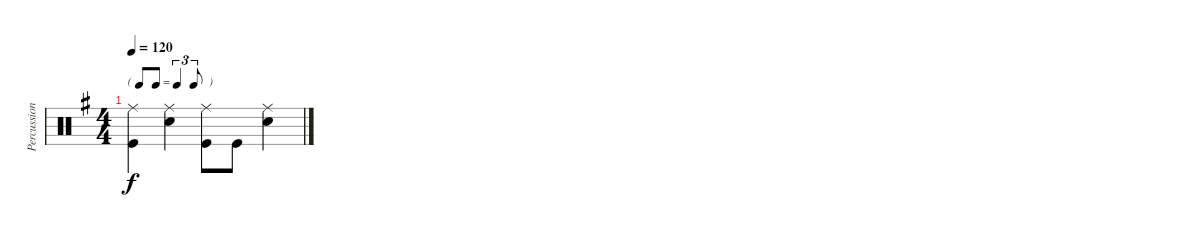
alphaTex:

\track ("Percussion" "Percussion") {instrument percussion}
\staff {score}
\articulation defaults
\ts (4 4)
\tf triplet8th
\tempo 120
\clef neutral
\ks g
("Ride (middle)" "Kick (hit)").4{dy f} ("Ride (middle)" "Snare (hit) 2").4 ("Ride (middle)" "Kick (hit)").8 "Kick (hit)".8 ("Ride (middle)" "Snare (hit) 2").4
